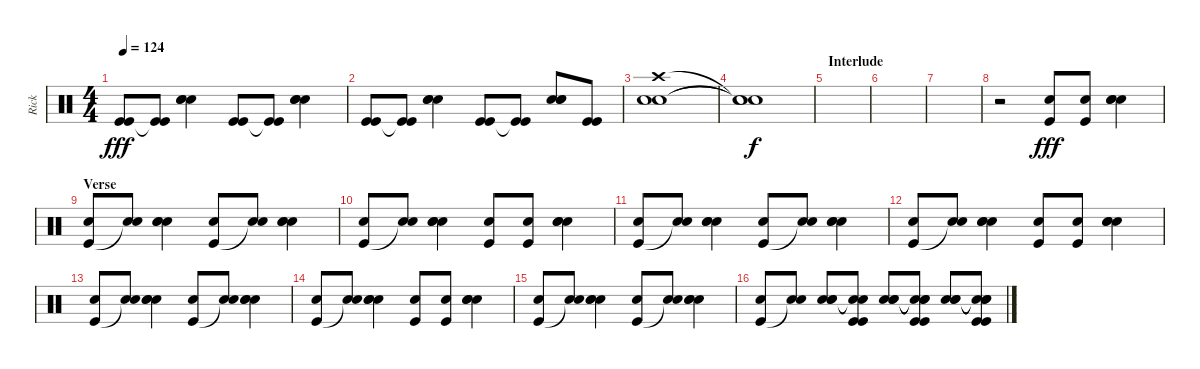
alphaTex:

\track ("Rick" "Rick") {instrument percussion}
\staff {score}
\articulation defaults
\ts (4 4)
\tempo 124
\clef neutral
\ks c
("Kick (hit)" "Kick (hit)").8{dy fff} ("Kick (hit)"{t} "Kick (hit)").8 ("Snare (hit) 2" "Snare (hit) 2" "Snare (hit) 2").4 ("Kick (hit)" "Kick (hit)").8 ("Kick (hit)"{t} "Kick (hit)").8 ("Snare (hit) 2" "Snare (hit) 2" "Snare (hit) 2").4 |
("Kick (hit)" "Kick (hit)").8 ("Kick (hit)"{t} "Kick (hit)").8 ("Snare (hit) 2" "Snare (hit) 2" "Snare (hit) 2").4 ("Kick (hit)" "Kick (hit)").8 ("Kick (hit)"{t} "Kick (hit)").8 ("Snare (hit) 2" "Snare (hit) 2" "Snare (hit) 2").8 ("Kick (hit)" "Kick (hit)").8 |
("Snare (hit) 2" "Snare (hit) 2" "Crash high (hit)").1 |
("Snare (hit)"{t} "Snare (hit)"{t} "Snare (hit)"{t}).1{dy f} |
\section ("" "Interlude")
|
|
|
r.2 ("Kick (hit)" "Snare (hit)").8{dy fff} ("Kick (hit)" "Snare (hit)").8 ("Snare (hit) 2" "Snare (hit) 2" "Snare (hit)").4 |
\section ("" "Verse")
("Kick (hit)" "Snare (hit)").8 ("Snare (hit) 2"{t} "Snare (hit)").8 ("Snare (hit) 2" "Snare (hit) 2" "Snare (hit)").4 ("Kick (hit)" "Snare (hit)").8 ("Snare (hit)"{t} "Snare (hit)").8 ("Snare (hit) 2" "Snare (hit) 2" "Snare (hit)").4 |
("Kick (hit)" "Snare (hit)").8 ("Snare (hit) 2"{t} "Snare (hit)").8 ("Snare (hit) 2" "Snare (hit) 2" "Snare (hit)").4 ("Kick (hit)" "Snare (hit)").8 ("Kick (hit)" "Snare (hit)").8 ("Snare (hit) 2" "Snare (hit) 2" "Snare (hit)").4 |
("Kick (hit)" "Snare (hit)").8 ("Snare (hit) 2"{t} "Snare (hit)").8 ("Snare (hit) 2" "Snare (hit) 2" "Snare (hit)").4 ("Kick (hit)" "Snare (hit)").8 ("Snare (hit)"{t} "Snare (hit)").8 ("Snare (hit) 2" "Snare (hit) 2" "Snare (hit)").4 |
("Kick (hit)" "Snare (hit)").8 ("Snare (hit) 2"{t} "Snare (hit)").8 ("Snare (hit) 2" "Snare (hit) 2" "Snare (hit)").4 ("Kick (hit)" "Snare (hit)").8 ("Kick (hit)" "Snare (hit)").8 ("Snare (hit) 2" "Snare (hit) 2" "Snare (hit)").4 |
("Kick (hit)" "Snare (hit)").8 ("Snare (hit) 2"{t} "Snare (hit)").8 ("Snare (hit) 2" "Snare (hit) 2" "Snare (hit)").4 ("Kick (hit)" "Snare (hit)").8 ("Snare (hit)"{t} "Snare (hit)").8 ("Snare (hit) 2" "Snare (hit) 2" "Snare (hit)").4 |
("Kick (hit)" "Snare (hit)").8 ("Snare (hit) 2"{t} "Snare (hit)").8 ("Snare (hit) 2" "Snare (hit) 2" "Snare (hit)").4 ("Kick (hit)" "Snare (hit)").8 ("Kick (hit)" "Snare (hit)").8 ("Snare (hit) 2" "Snare (hit) 2" "Snare (hit)").4 |
("Kick (hit)" "Snare (hit)").8 ("Snare (hit) 2"{t} "Snare (hit)").8 ("Snare (hit) 2" "Snare (hit) 2" "Snare (hit)").4 ("Kick (hit)" "Snare (hit)").8 ("Snare (hit)"{t} "Snare (hit)").8 ("Snare (hit) 2" "Snare (hit) 2" "Snare (hit)").4 |
("Kick (hit)" "Snare (hit)").8 ("Snare (hit) 2"{t} "Snare (hit)").8 ("Snare (hit) 2" "Snare (hit) 2" "Snare (hit)").8 ("Snare (hit) 2"{t} "Snare (hit) 2"{t} "Kick (hit)" "Kick (hit)").8 ("Snare (hit) 2" "Snare (hit) 2" "Snare (hit) 2").8 ("Snare (hit)"{t} "Snare (hit)"{t} "Snare (hit)"{t} "Kick (hit)" "Kick (hit)").8 ("Snare (hit) 2" "Snare (hit) 2" "Snare (hit) 2").8 ("Snare (hit)"{t} "Snare (hit)"{t} "Snare (hit)"{t} "Kick (hit)" "Kick (hit)").8
